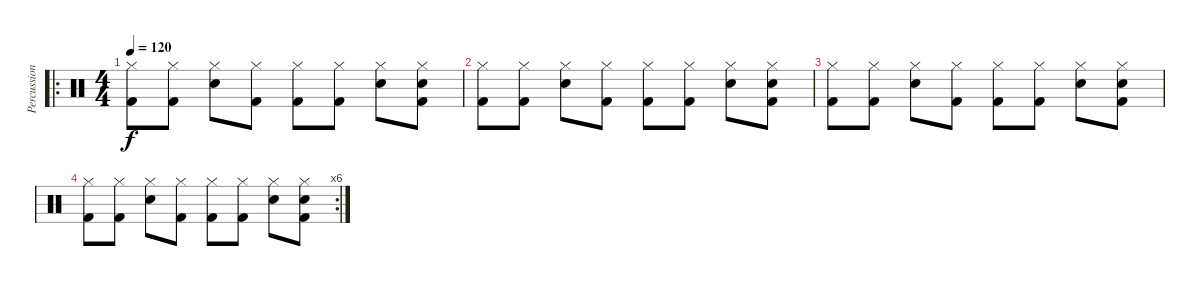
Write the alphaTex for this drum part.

\track ("Percussion" "Percussion") {instrument percussion}
\staff {score}
\articulation defaults
\ro
\ts (4 4)
\tempo 120
\clef neutral
\ks c
("Hi-Hat (closed)" "Kick (hit) 2").8{dy f} ("Hi-Hat (closed)" "Kick (hit) 2").8 ("Hi-Hat (closed)" "Snare (hit) 2").8 ("Hi-Hat (closed)" "Kick (hit) 2").8 ("Hi-Hat (closed)" "Kick (hit) 2").8 ("Hi-Hat (closed)" "Kick (hit) 2").8 ("Hi-Hat (closed)" "Snare (hit) 2").8 ("Hi-Hat (closed)" "Snare (hit) 2" "Kick (hit) 2").8 |
("Hi-Hat (closed)" "Kick (hit) 2").8 ("Hi-Hat (closed)" "Kick (hit) 2").8 ("Hi-Hat (closed)" "Snare (hit) 2").8 ("Hi-Hat (closed)" "Kick (hit) 2").8 ("Hi-Hat (closed)" "Kick (hit) 2").8 ("Hi-Hat (closed)" "Kick (hit) 2").8 ("Hi-Hat (closed)" "Snare (hit) 2").8 ("Hi-Hat (closed)" "Snare (hit) 2" "Kick (hit) 2").8 |
("Hi-Hat (closed)" "Kick (hit) 2").8 ("Hi-Hat (closed)" "Kick (hit) 2").8 ("Hi-Hat (closed)" "Snare (hit) 2").8 ("Hi-Hat (closed)" "Kick (hit) 2").8 ("Hi-Hat (closed)" "Kick (hit) 2").8 ("Hi-Hat (closed)" "Kick (hit) 2").8 ("Hi-Hat (closed)" "Snare (hit) 2").8 ("Hi-Hat (closed)" "Snare (hit) 2" "Kick (hit) 2").8 |
\rc 6
("Hi-Hat (closed)" "Kick (hit) 2").8 ("Hi-Hat (closed)" "Kick (hit) 2").8 ("Hi-Hat (closed)" "Snare (hit) 2").8 ("Hi-Hat (closed)" "Kick (hit) 2").8 ("Hi-Hat (closed)" "Kick (hit) 2").8 ("Hi-Hat (closed)" "Kick (hit) 2").8 ("Hi-Hat (closed)" "Snare (hit) 2").8 ("Hi-Hat (closed)" "Snare (hit) 2" "Kick (hit) 2").8
